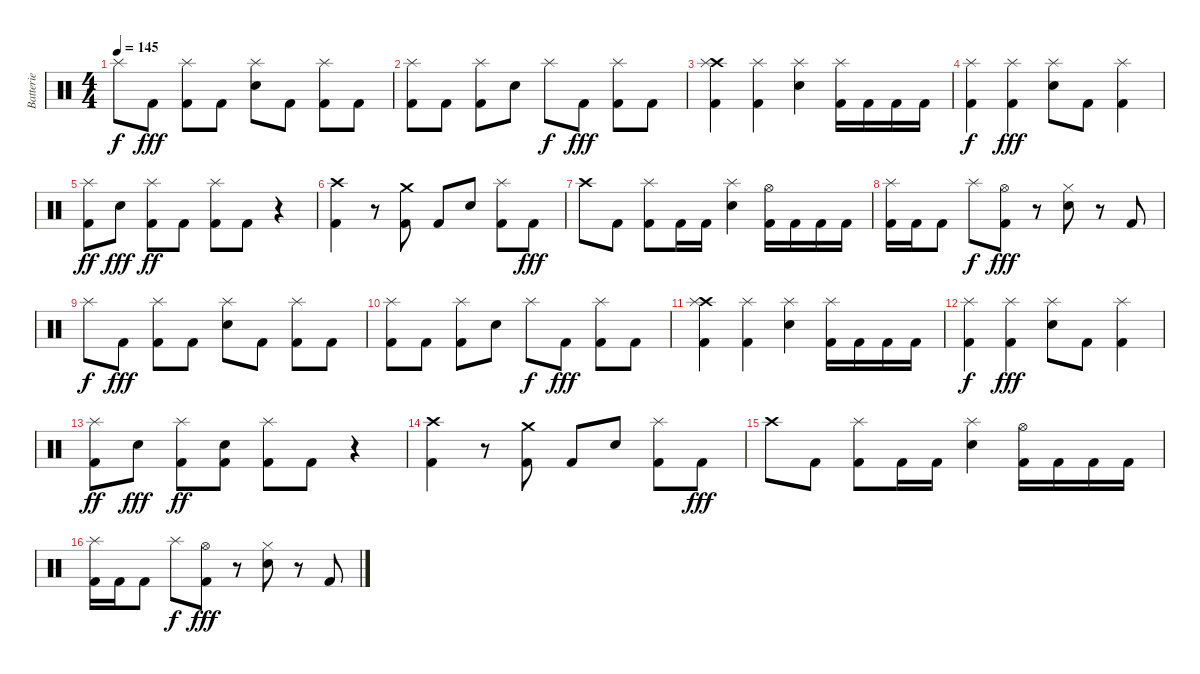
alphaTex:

\track ("Batterie" "Batterie") {instrument percussion}
\staff {score}
\articulation defaults
\ts (4 4)
\tempo 145
\clef neutral
\ks c "Splash (hit)".8{dy f} "Kick (hit) 2".8{dy fff}
("Splash (hit)" "Kick (hit) 2").8 "Kick (hit) 2".8 ("Splash (hit)" "Electric Snare (hit)").8 "Kick (hit) 2".8 ("Splash (hit)" "Kick (hit) 2").8 "Kick (hit) 2".8 |
("Splash (hit)" "Kick (hit) 2").8 "Kick (hit) 2".8 ("Splash (hit)" "Kick (hit) 2").8 "Electric Snare (hit)".8 "Splash (hit)".8{dy f} "Kick (hit) 2".8{dy fff} ("Splash (hit)" "Kick (hit) 2").8 "Kick (hit) 2".8 |
("Crash high (hit)" "Splash (hit)" "Kick (hit) 2").4 ("Splash (hit)" "Kick (hit) 2").4 ("Splash (hit)" "Electric Snare (hit)").4 ("Splash (hit)" "Kick (hit) 2").16 "Kick (hit) 2".16 "Kick (hit) 2".16 "Kick (hit) 2".16 |
("Splash (hit)" "Kick (hit) 2").4{dy f} ("Splash (hit)" "Kick (hit) 2").4{dy fff} ("Splash (hit)" "Electric Snare (hit)").8 "Kick (hit) 2".8 ("Splash (hit)" "Kick (hit) 2").4 |
("Splash (hit)" "Kick (hit) 2").8{dy ff} "Electric Snare (hit)".8{dy fff} ("Splash (hit)" "Kick (hit) 2").8{dy ff} "Kick (hit) 2".8 ("Splash (hit)" "Kick (hit) 2").8 "Kick (hit) 2".8 r.4 |
("Crash high (hit)" "Kick (hit) 2").4 r.8 ("Crash medium (hit)" "Kick (hit) 2").8 "Kick (hit) 2".8 "Electric Snare (hit)".8 ("Splash (hit)" "Kick (hit) 2").8 "Kick (hit) 2".8{dy fff} |
"Crash high (hit)".8 "Kick (hit) 2".8 ("Splash (hit)" "Kick (hit) 2").8 "Kick (hit) 2".16 "Kick (hit) 2".16 ("Splash (hit)" "Electric Snare (hit)").4 ("Hi-Hat (open)" "Kick (hit) 2").16 "Kick (hit) 2".16 "Kick (hit) 2".16 "Kick (hit) 2".16 |
("Splash (hit)" "Kick (hit) 2").16 "Kick (hit) 2".16 "Kick (hit) 2".8 "Splash (hit)".8{dy f} ("Hi-Hat (open)" "Kick (hit) 2").8{dy fff} r.8 ("Hi-Hat (closed)" "Electric Snare (hit)").8 r.8 "Kick (hit) 2".8 |
"Splash (hit)".8{dy f} "Kick (hit) 2".8{dy fff} ("Splash (hit)" "Kick (hit) 2").8 "Kick (hit) 2".8 ("Splash (hit)" "Electric Snare (hit)").8 "Kick (hit) 2".8 ("Splash (hit)" "Kick (hit) 2").8 "Kick (hit) 2".8 |
("Splash (hit)" "Kick (hit) 2").8 "Kick (hit) 2".8 ("Splash (hit)" "Kick (hit) 2").8 "Electric Snare (hit)".8 "Splash (hit)".8{dy f} "Kick (hit) 2".8{dy fff} ("Splash (hit)" "Kick (hit) 2").8 "Kick (hit) 2".8 |
("Crash high (hit)" "Splash (hit)" "Kick (hit) 2").4 ("Splash (hit)" "Kick (hit) 2").4 ("Splash (hit)" "Electric Snare (hit)").4 ("Splash (hit)" "Kick (hit) 2").16 "Kick (hit) 2".16 "Kick (hit) 2".16 "Kick (hit) 2".16 |
("Splash (hit)" "Kick (hit) 2").4{dy f} ("Splash (hit)" "Kick (hit) 2").4{dy fff} ("Splash (hit)" "Electric Snare (hit)").8 "Kick (hit) 2".8 ("Splash (hit)" "Kick (hit) 2").4 |
("Splash (hit)" "Kick (hit) 2").8{dy ff} "Electric Snare (hit)".8{dy fff} ("Splash (hit)" "Kick (hit) 2").8{dy ff} ("Electric Snare (hit)" "Kick (hit) 2").8 ("Splash (hit)" "Kick (hit) 2").8 "Kick (hit) 2".8 r.4 |
("Crash high (hit)" "Kick (hit) 2").4 r.8 ("Crash medium (hit)" "Kick (hit) 2").8 "Kick (hit) 2".8 "Electric Snare (hit)".8 ("Splash (hit)" "Kick (hit) 2").8 "Kick (hit) 2".8{dy fff} |
"Crash high (hit)".8 "Kick (hit) 2".8 ("Splash (hit)" "Kick (hit) 2").8 "Kick (hit) 2".16 "Kick (hit) 2".16 ("Splash (hit)" "Electric Snare (hit)").4 ("Hi-Hat (open)" "Kick (hit) 2").16 "Kick (hit) 2".16 "Kick (hit) 2".16 "Kick (hit) 2".16 |
("Splash (hit)" "Kick (hit) 2").16 "Kick (hit) 2".16 "Kick (hit) 2".8 "Splash (hit)".8{dy f} ("Hi-Hat (open)" "Kick (hit) 2").8{dy fff} r.8 ("Hi-Hat (closed)" "Electric Snare (hit)").8 r.8 "Kick (hit) 2".8
